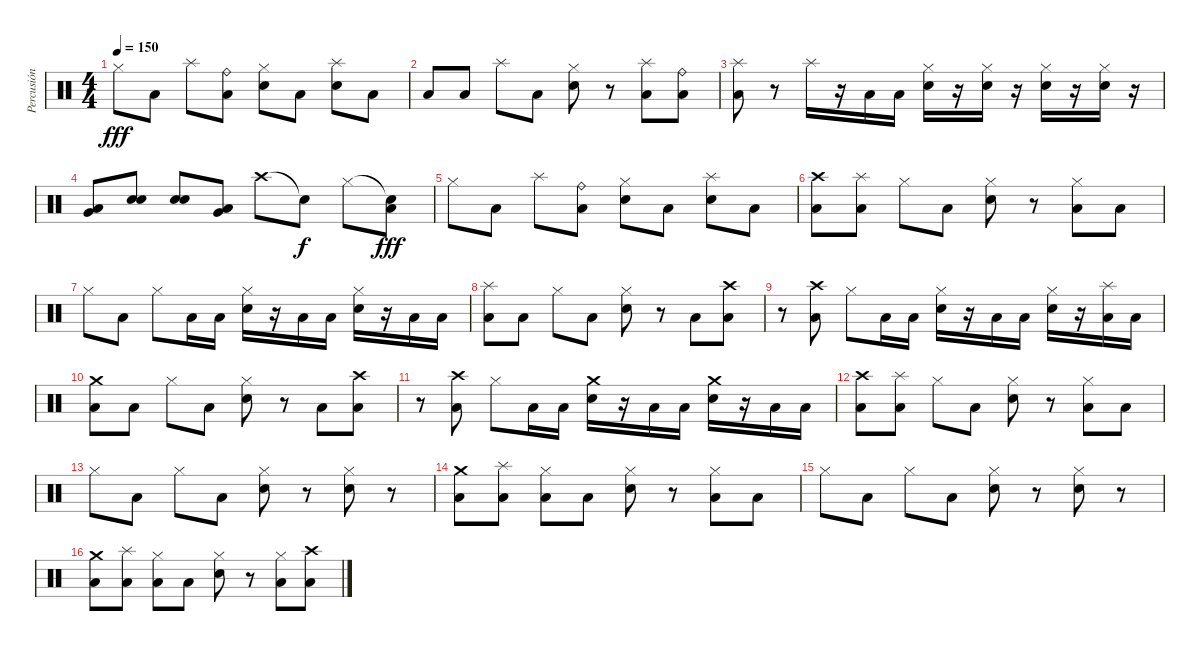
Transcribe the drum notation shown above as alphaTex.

\track ("Percusión" "Percusión") {instrument percussion}
\staff {score}
\articulation defaults
\ts (4 4)
\tempo 150
\clef neutral
\ks c "Hi-Hat (closed)".8{dy fff} "Low Tom (hit)".8 "Splash (hit)".8
("Ride (bell)" "Low Tom (hit)").8 ("Hi-Hat (closed)" "Snare (hit) 2").8 "Low Tom (hit)".8 ("Splash (hit)" "Snare (hit) 2").8 "Low Tom (hit)".8 |
"Low Tom (hit)".8 "Low Tom (hit)".8 "Splash (hit)".8 "Low Tom (hit)".8 ("Hi-Hat (closed)" "Snare (hit) 2").8 r.8 ("Splash (hit)" "Low Tom (hit)").8 ("Ride (bell)" "Low Tom (hit)").8 |
("Splash (hit)" "Low Tom (hit)").8 r.8 "Splash (hit)".16 r.16 "Low Tom (hit)".16 "Low Tom (hit)".16 ("Hi-Hat (closed)" "Snare (hit) 2").16 r.16 ("Hi-Hat (closed)" "Snare (hit) 2").16 r.16 ("Hi-Hat (closed)" "Snare (hit) 2").16 r.16 ("Hi-Hat (closed)" "Snare (hit) 2").16 r.16 |
("Very Low Tom (hit)" "Low Tom (hit)").8 ("Electric Snare (hit)" "Snare (hit) 2").8 ("Electric Snare (hit)" "Snare (hit) 2").8 ("Low Tom (hit)" "Very Low Tom (hit)").8 "Crash high (hit)".8 "Snare (hit)"{t}.8{dy f} "Hi-Hat (closed)".8 ("Snare (hit)"{t} "Low Tom (hit)").8{dy fff} |
"Hi-Hat (closed)".8 "Low Tom (hit)".8 "Splash (hit)".8 ("Ride (bell)" "Low Tom (hit)").8 ("Hi-Hat (closed)" "Snare (hit) 2").8 "Low Tom (hit)".8 ("Splash (hit)" "Snare (hit) 2").8 "Low Tom (hit)".8 |
("Crash high (hit)" "Low Tom (hit)").8 ("Splash (hit)" "Low Tom (hit)").8 "Hi-Hat (closed)".8 "Low Tom (hit)".8 ("Hi-Hat (closed)" "Snare (hit) 2").8 r.8 ("Hi-Hat (closed)" "Low Tom (hit)").8 "Low Tom (hit)".8 |
"Hi-Hat (closed)".8 "Low Tom (hit)".8 "Hi-Hat (closed)".8 "Low Tom (hit)".16 "Low Tom (hit)".16 ("Hi-Hat (closed)" "Snare (hit) 2").16 r.16 "Low Tom (hit)".16 "Low Tom (hit)".16 ("Hi-Hat (closed)" "Snare (hit) 2").16 r.16 "Low Tom (hit)".16 "Low Tom (hit)".16 |
("Splash (hit)" "Low Tom (hit)").8 "Low Tom (hit)".8 "Hi-Hat (closed)".8 "Low Tom (hit)".8 ("Hi-Hat (closed)" "Snare (hit) 2").8 r.8 "Low Tom (hit)".8 ("Crash high (hit)" "Low Tom (hit)").8 |
r.8 ("Crash high (hit)" "Low Tom (hit)").8 "Hi-Hat (closed)".8 "Low Tom (hit)".16 "Low Tom (hit)".16 ("Hi-Hat (closed)" "Snare (hit) 2").16 r.16 "Low Tom (hit)".16 "Low Tom (hit)".16 ("Hi-Hat (closed)" "Snare (hit) 2").16 r.16 ("Splash (hit)" "Low Tom (hit)").16 "Low Tom (hit)".16 |
("Crash medium (hit)" "Low Tom (hit)").8 "Low Tom (hit)".8 "Hi-Hat (closed)".8 "Low Tom (hit)".8 ("Hi-Hat (closed)" "Snare (hit) 2").8 r.8 "Low Tom (hit)".8 ("Crash high (hit)" "Low Tom (hit)").8 |
r.8 ("Crash high (hit)" "Low Tom (hit)").8 "Hi-Hat (closed)".8 "Low Tom (hit)".16 "Low Tom (hit)".16 ("Crash medium (hit)" "Snare (hit) 2").16 r.16 "Low Tom (hit)".16 "Low Tom (hit)".16 ("Crash medium (hit)" "Snare (hit) 2").16 r.16 "Low Tom (hit)".16 "Low Tom (hit)".16 |
("Crash high (hit)" "Low Tom (hit)").8 ("Splash (hit)" "Low Tom (hit)").8 "Hi-Hat (closed)".8 "Low Tom (hit)".8 ("Hi-Hat (closed)" "Snare (hit) 2").8 r.8 ("Hi-Hat (closed)" "Low Tom (hit)").8 "Low Tom (hit)".8 |
"Hi-Hat (closed)".8 "Low Tom (hit)".8 "Hi-Hat (closed)".8 "Low Tom (hit)".8 ("Hi-Hat (closed)" "Snare (hit) 2").8 r.8 ("Hi-Hat (closed)" "Snare (hit) 2").8 r.8 |
("Crash medium (hit)" "Low Tom (hit)").8 ("Splash (hit)" "Low Tom (hit)").8 ("Hi-Hat (closed)" "Low Tom (hit)").8 "Low Tom (hit)".8 ("Hi-Hat (closed)" "Snare (hit) 2").8 r.8 ("Hi-Hat (closed)" "Low Tom (hit)").8 "Low Tom (hit)".8 |
"Hi-Hat (closed)".8 "Low Tom (hit)".8 "Hi-Hat (closed)".8 "Low Tom (hit)".8 ("Hi-Hat (closed)" "Snare (hit) 2").8 r.8 ("Hi-Hat (closed)" "Snare (hit) 2").8 r.8 |
("Crash medium (hit)" "Low Tom (hit)").8 ("Splash (hit)" "Low Tom (hit)").8 ("Hi-Hat (closed)" "Low Tom (hit)").8 "Low Tom (hit)".8 ("Hi-Hat (closed)" "Snare (hit) 2").8 r.8 ("Hi-Hat (closed)" "Low Tom (hit)").8 ("Crash high (hit)" "Low Tom (hit)").8
